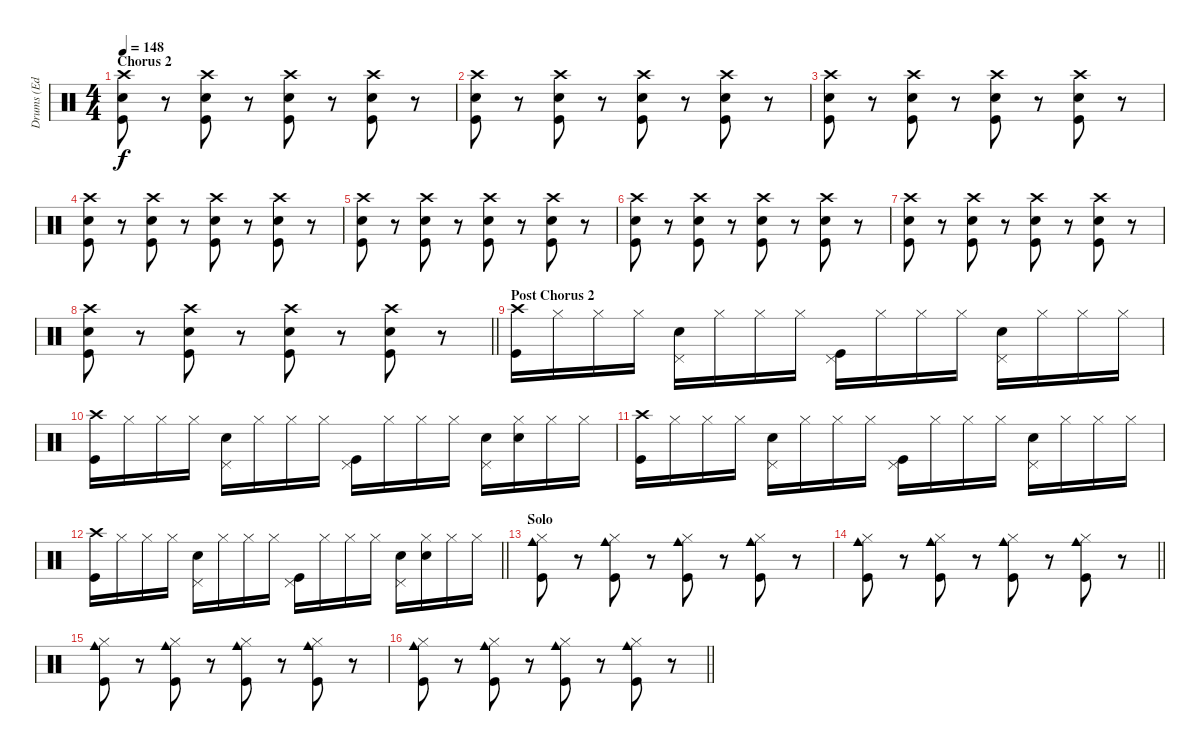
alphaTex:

\track ("Drums (Ed Lay)" "Drums (Ed ") {instrument percussion}
\staff {score}
\articulation defaults
\ts (4 4)
\section ("" "Chorus 2")
\tempo 148
\clef neutral
\ks c
("Crash high (hit)" "Electric Snare (hit)" "Kick (hit)").8{dy f} r.8 ("Crash high (hit)" "Electric Snare (hit)" "Kick (hit)").8 r.8 ("Crash high (hit)" "Electric Snare (hit)" "Kick (hit)").8 r.8 ("Crash high (hit)" "Electric Snare (hit)" "Kick (hit)").8 r.8 |
("Crash high (hit)" "Electric Snare (hit)" "Kick (hit)").8 r.8 ("Crash high (hit)" "Electric Snare (hit)" "Kick (hit)").8 r.8 ("Crash high (hit)" "Electric Snare (hit)" "Kick (hit)").8 r.8 ("Crash high (hit)" "Electric Snare (hit)" "Kick (hit)").8 r.8 |
("Crash high (hit)" "Electric Snare (hit)" "Kick (hit)").8 r.8 ("Crash high (hit)" "Electric Snare (hit)" "Kick (hit)").8 r.8 ("Crash high (hit)" "Electric Snare (hit)" "Kick (hit)").8 r.8 ("Crash high (hit)" "Electric Snare (hit)" "Kick (hit)").8 r.8 |
("Crash high (hit)" "Electric Snare (hit)" "Kick (hit)").8 r.8 ("Crash high (hit)" "Electric Snare (hit)" "Kick (hit)").8 r.8 ("Crash high (hit)" "Electric Snare (hit)" "Kick (hit)").8 r.8 ("Crash high (hit)" "Electric Snare (hit)" "Kick (hit)").8 r.8 |
("Crash high (hit)" "Electric Snare (hit)" "Kick (hit)").8 r.8 ("Crash high (hit)" "Electric Snare (hit)" "Kick (hit)").8 r.8 ("Crash high (hit)" "Electric Snare (hit)" "Kick (hit)").8 r.8 ("Crash high (hit)" "Electric Snare (hit)" "Kick (hit)").8 r.8 |
("Crash high (hit)" "Electric Snare (hit)" "Kick (hit)").8 r.8 ("Crash high (hit)" "Electric Snare (hit)" "Kick (hit)").8 r.8 ("Crash high (hit)" "Electric Snare (hit)" "Kick (hit)").8 r.8 ("Crash high (hit)" "Electric Snare (hit)" "Kick (hit)").8 r.8 |
("Crash high (hit)" "Electric Snare (hit)" "Kick (hit)").8 r.8 ("Crash high (hit)" "Electric Snare (hit)" "Kick (hit)").8 r.8 ("Crash high (hit)" "Electric Snare (hit)" "Kick (hit)").8 r.8 ("Crash high (hit)" "Electric Snare (hit)" "Kick (hit)").8 r.8 |
\barLineRight lightlight
("Crash high (hit)" "Electric Snare (hit)" "Kick (hit)").8 r.8 ("Crash high (hit)" "Electric Snare (hit)" "Kick (hit)").8 r.8 ("Crash high (hit)" "Electric Snare (hit)" "Kick (hit)").8 r.8 ("Crash high (hit)" "Electric Snare (hit)" "Kick (hit)").8 r.8 |
\section ("" "Post Chorus 2")
("Crash high (hit)" "Kick (hit)").16 "Hi-Hat (closed)".16 "Hi-Hat (closed)".16 "Hi-Hat (closed)".16 ("Pedal Hi-Hat (hit)" "Electric Snare (hit)").16 "Hi-Hat (closed)".16 "Hi-Hat (closed)".16 "Hi-Hat (closed)".16 ("Pedal Hi-Hat (hit)" "Kick (hit)").16 "Hi-Hat (closed)".16 "Hi-Hat (closed)".16 "Hi-Hat (closed)".16 ("Pedal Hi-Hat (hit)" "Electric Snare (hit)").16 "Hi-Hat (closed)".16 "Hi-Hat (closed)".16 "Hi-Hat (closed)".16 |
("Crash high (hit)" "Kick (hit)").16 "Hi-Hat (closed)".16 "Hi-Hat (closed)".16 "Hi-Hat (closed)".16 ("Pedal Hi-Hat (hit)" "Electric Snare (hit)").16 "Hi-Hat (closed)".16 "Hi-Hat (closed)".16 "Hi-Hat (closed)".16 ("Pedal Hi-Hat (hit)" "Kick (hit)").16 "Hi-Hat (closed)".16 "Hi-Hat (closed)".16 "Hi-Hat (closed)".16 ("Pedal Hi-Hat (hit)" "Electric Snare (hit)").16 ("Hi-Hat (closed)" "Electric Snare (hit)").16 "Hi-Hat (closed)".16 "Hi-Hat (closed)".16 |
("Crash high (hit)" "Kick (hit)").16 "Hi-Hat (closed)".16 "Hi-Hat (closed)".16 "Hi-Hat (closed)".16 ("Pedal Hi-Hat (hit)" "Electric Snare (hit)").16 "Hi-Hat (closed)".16 "Hi-Hat (closed)".16 "Hi-Hat (closed)".16 ("Pedal Hi-Hat (hit)" "Kick (hit)").16 "Hi-Hat (closed)".16 "Hi-Hat (closed)".16 "Hi-Hat (closed)".16 ("Pedal Hi-Hat (hit)" "Electric Snare (hit)").16 "Hi-Hat (closed)".16 "Hi-Hat (closed)".16 "Hi-Hat (closed)".16 |
\barLineRight lightlight
("Crash high (hit)" "Kick (hit)").16 "Hi-Hat (closed)".16 "Hi-Hat (closed)".16 "Hi-Hat (closed)".16 ("Pedal Hi-Hat (hit)" "Electric Snare (hit)").16 "Hi-Hat (closed)".16 "Hi-Hat (closed)".16 "Hi-Hat (closed)".16 ("Pedal Hi-Hat (hit)" "Kick (hit)").16 "Hi-Hat (closed)".16 "Hi-Hat (closed)".16 "Hi-Hat (closed)".16 ("Pedal Hi-Hat (hit)" "Electric Snare (hit)").16 ("Hi-Hat (closed)" "Electric Snare (hit)").16 "Hi-Hat (closed)".16 "Hi-Hat (closed)".16 |
\section ("" "Solo")
("Cowbell medium (hit)" "Hi-Hat (closed)" "Kick (hit)").8 r.8 ("Cowbell medium (hit)" "Hi-Hat (closed)" "Kick (hit)").8 r.8 ("Cowbell medium (hit)" "Hi-Hat (closed)" "Kick (hit)").8 r.8 ("Cowbell medium (hit)" "Hi-Hat (closed)" "Kick (hit)").8 r.8 |
\barLineRight lightlight
("Cowbell medium (hit)" "Hi-Hat (closed)" "Kick (hit)").8 r.8 ("Cowbell medium (hit)" "Hi-Hat (closed)" "Kick (hit)").8 r.8 ("Cowbell medium (hit)" "Hi-Hat (closed)" "Kick (hit)").8 r.8 ("Cowbell medium (hit)" "Hi-Hat (closed)" "Kick (hit)").8 r.8 |
("Cowbell medium (hit)" "Hi-Hat (closed)" "Kick (hit)").8 r.8 ("Cowbell medium (hit)" "Hi-Hat (closed)" "Kick (hit)").8 r.8 ("Cowbell medium (hit)" "Hi-Hat (closed)" "Kick (hit)").8 r.8 ("Cowbell medium (hit)" "Hi-Hat (closed)" "Kick (hit)").8 r.8 |
\barLineRight lightlight
("Cowbell medium (hit)" "Hi-Hat (closed)" "Kick (hit)").8 r.8 ("Cowbell medium (hit)" "Hi-Hat (closed)" "Kick (hit)").8 r.8 ("Cowbell medium (hit)" "Hi-Hat (closed)" "Kick (hit)").8 r.8 ("Cowbell medium (hit)" "Hi-Hat (closed)" "Kick (hit)").8 r.8
